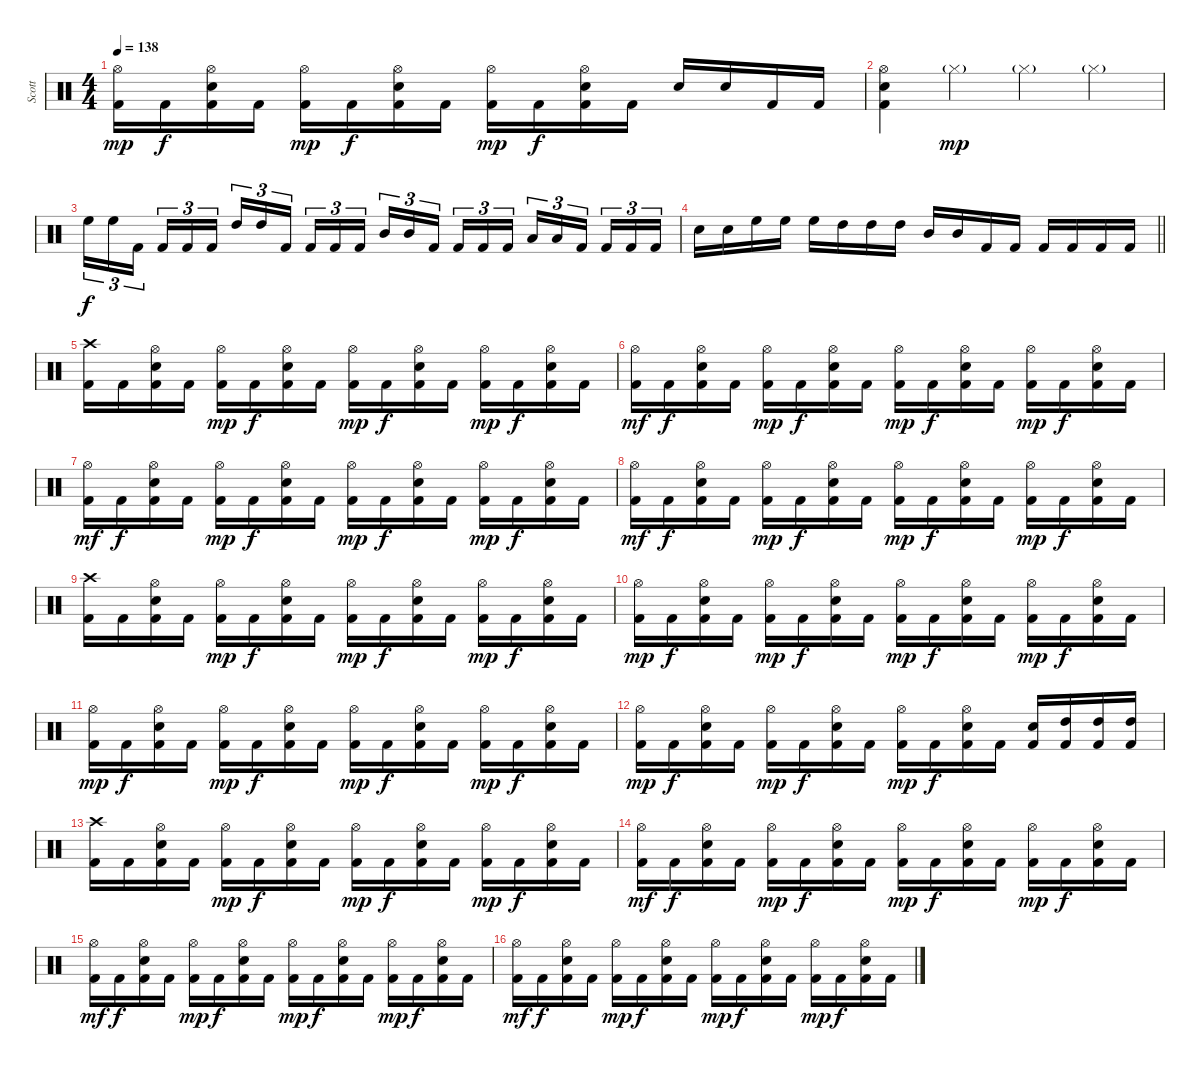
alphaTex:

\track ("Scott" "Scott") {instrument percussion}
\staff {score}
\articulation defaults
\ts (4 4)
\tempo 138
\clef neutral
\ks c
("Hi-Hat (open)" "Kick (hit) 2").16{dy mp} "Kick (hit) 2".16{dy f} ("Hi-Hat (open)" "Electric Snare (hit)" "Kick (hit) 2").16 "Kick (hit) 2".16 ("Hi-Hat (open)" "Kick (hit) 2").16{dy mp} "Kick (hit) 2".16{dy f} ("Hi-Hat (open)" "Electric Snare (hit)" "Kick (hit) 2").16 "Kick (hit) 2".16 ("Hi-Hat (open)" "Kick (hit) 2").16{dy mp} "Kick (hit) 2".16{dy f} ("Hi-Hat (open)" "Electric Snare (hit)" "Kick (hit) 2").16 "Kick (hit) 2".16 "Electric Snare (hit)".16 "Electric Snare (hit)".16 "Kick (hit) 2".16 "Kick (hit) 2".16 |
("Hi-Hat (open)" "Electric Snare (hit)" "Kick (hit) 2").4 "Hi-Hat (closed)"{g}.4{dy mp} "Hi-Hat (closed)"{g}.4 "Hi-Hat (closed)"{g}.4 |
"High Floor Tom (hit)".16{tu (3 2) dy f} "High Floor Tom (hit)".16{tu (3 2)} "Kick (hit) 2".16{tu (3 2)} "Kick (hit) 2".16{tu (3 2)} "Kick (hit) 2".16{tu (3 2)} "Kick (hit) 2".16{tu (3 2)} "High Tom (hit)".16{tu (3 2)} "High Tom (hit)".16{tu (3 2)} "Kick (hit) 2".16{tu (3 2)} "Kick (hit) 2".16{tu (3 2)} "Kick (hit) 2".16{tu (3 2)} "Kick (hit) 2".16{tu (3 2)} "Mid Tom (hit)".16{tu (3 2)} "Mid Tom (hit)".16{tu (3 2)} "Kick (hit) 2".16{tu (3 2)} "Kick (hit) 2".16{tu (3 2)} "Kick (hit) 2".16{tu (3 2)} "Kick (hit) 2".16{tu (3 2)} "Low Tom (hit)".16{tu (3 2)} "Low Tom (hit)".16{tu (3 2)} "Kick (hit) 2".16{tu (3 2)} "Kick (hit) 2".16{tu (3 2)} "Kick (hit) 2".16{tu (3 2)} "Kick (hit) 2".16{tu (3 2)} |
\barLineRight lightlight "Electric Snare (hit)".16 "Electric Snare (hit)".16 "High Floor Tom (hit)".16 "High Floor Tom (hit)".16 "High Floor Tom (hit)".16 "High Tom (hit)".16 "High Tom (hit)".16 "High Tom (hit)".16 "Mid Tom (hit)".16 "Mid Tom (hit)".16 "Kick (hit) 2".16 "Kick (hit) 2".16 "Kick (hit) 2".16 "Kick (hit) 2".16 "Kick (hit) 2".16 "Kick (hit) 2".16
|
("Crash high (hit)" "Kick (hit) 2").16 "Kick (hit) 2".16 ("Hi-Hat (open)" "Electric Snare (hit)" "Kick (hit) 2").16 "Kick (hit) 2".16 ("Hi-Hat (open)" "Kick (hit) 2").16{dy mp} "Kick (hit) 2".16{dy f} ("Hi-Hat (open)" "Electric Snare (hit)" "Kick (hit) 2").16 "Kick (hit) 2".16 ("Hi-Hat (open)" "Kick (hit) 2").16{dy mp} "Kick (hit) 2".16{dy f} ("Hi-Hat (open)" "Electric Snare (hit)" "Kick (hit) 2").16 "Kick (hit) 2".16 ("Hi-Hat (open)" "Kick (hit) 2").16{dy mp} "Kick (hit) 2".16{dy f} ("Hi-Hat (open)" "Electric Snare (hit)" "Kick (hit) 2").16 "Kick (hit) 2".16 |
("Hi-Hat (open)" "Kick (hit) 2").16{dy mf} "Kick (hit) 2".16{dy f} ("Hi-Hat (open)" "Electric Snare (hit)" "Kick (hit) 2").16 "Kick (hit) 2".16 ("Hi-Hat (open)" "Kick (hit) 2").16{dy mp} "Kick (hit) 2".16{dy f} ("Hi-Hat (open)" "Electric Snare (hit)" "Kick (hit) 2").16 "Kick (hit) 2".16 ("Hi-Hat (open)" "Kick (hit) 2").16{dy mp} "Kick (hit) 2".16{dy f} ("Hi-Hat (open)" "Electric Snare (hit)" "Kick (hit) 2").16 "Kick (hit) 2".16 ("Hi-Hat (open)" "Kick (hit) 2").16{dy mp} "Kick (hit) 2".16{dy f} ("Hi-Hat (open)" "Electric Snare (hit)" "Kick (hit) 2").16 "Kick (hit) 2".16 |
("Hi-Hat (open)" "Kick (hit) 2").16{dy mf} "Kick (hit) 2".16{dy f} ("Hi-Hat (open)" "Electric Snare (hit)" "Kick (hit) 2").16 "Kick (hit) 2".16 ("Hi-Hat (open)" "Kick (hit) 2").16{dy mp} "Kick (hit) 2".16{dy f} ("Hi-Hat (open)" "Electric Snare (hit)" "Kick (hit) 2").16 "Kick (hit) 2".16 ("Hi-Hat (open)" "Kick (hit) 2").16{dy mp} "Kick (hit) 2".16{dy f} ("Hi-Hat (open)" "Electric Snare (hit)" "Kick (hit) 2").16 "Kick (hit) 2".16 ("Hi-Hat (open)" "Kick (hit) 2").16{dy mp} "Kick (hit) 2".16{dy f} ("Hi-Hat (open)" "Electric Snare (hit)" "Kick (hit) 2").16 "Kick (hit) 2".16 |
("Hi-Hat (open)" "Kick (hit) 2").16{dy mf} "Kick (hit) 2".16{dy f} ("Hi-Hat (open)" "Electric Snare (hit)" "Kick (hit) 2").16 "Kick (hit) 2".16 ("Hi-Hat (open)" "Kick (hit) 2").16{dy mp} "Kick (hit) 2".16{dy f} ("Hi-Hat (open)" "Electric Snare (hit)" "Kick (hit) 2").16 "Kick (hit) 2".16 ("Hi-Hat (open)" "Kick (hit) 2").16{dy mp} "Kick (hit) 2".16{dy f} ("Hi-Hat (open)" "Electric Snare (hit)" "Kick (hit) 2").16 "Kick (hit) 2".16 ("Hi-Hat (open)" "Kick (hit) 2").16{dy mp} "Kick (hit) 2".16{dy f} ("Hi-Hat (open)" "Electric Snare (hit)" "Kick (hit) 2").16 "Kick (hit) 2".16 |
("Crash high (hit)" "Kick (hit) 2").16 "Kick (hit) 2".16 ("Hi-Hat (open)" "Electric Snare (hit)" "Kick (hit) 2").16 "Kick (hit) 2".16 ("Hi-Hat (open)" "Kick (hit) 2").16{dy mp} "Kick (hit) 2".16{dy f} ("Hi-Hat (open)" "Electric Snare (hit)" "Kick (hit) 2").16 "Kick (hit) 2".16 ("Hi-Hat (open)" "Kick (hit) 2").16{dy mp} "Kick (hit) 2".16{dy f} ("Hi-Hat (open)" "Electric Snare (hit)" "Kick (hit) 2").16 "Kick (hit) 2".16 ("Hi-Hat (open)" "Kick (hit) 2").16{dy mp} "Kick (hit) 2".16{dy f} ("Hi-Hat (open)" "Electric Snare (hit)" "Kick (hit) 2").16 "Kick (hit) 2".16 |
("Hi-Hat (open)" "Kick (hit) 2").16{dy mp} "Kick (hit) 2".16{dy f} ("Hi-Hat (open)" "Electric Snare (hit)" "Kick (hit) 2").16 "Kick (hit) 2".16 ("Hi-Hat (open)" "Kick (hit) 2").16{dy mp} "Kick (hit) 2".16{dy f} ("Hi-Hat (open)" "Electric Snare (hit)" "Kick (hit) 2").16 "Kick (hit) 2".16 ("Hi-Hat (open)" "Kick (hit) 2").16{dy mp} "Kick (hit) 2".16{dy f} ("Hi-Hat (open)" "Electric Snare (hit)" "Kick (hit) 2").16 "Kick (hit) 2".16 ("Hi-Hat (open)" "Kick (hit) 2").16{dy mp} "Kick (hit) 2".16{dy f} ("Hi-Hat (open)" "Electric Snare (hit)" "Kick (hit) 2").16 "Kick (hit) 2".16 |
("Hi-Hat (open)" "Kick (hit) 2").16{dy mp} "Kick (hit) 2".16{dy f} ("Hi-Hat (open)" "Electric Snare (hit)" "Kick (hit) 2").16 "Kick (hit) 2".16 ("Hi-Hat (open)" "Kick (hit) 2").16{dy mp} "Kick (hit) 2".16{dy f} ("Hi-Hat (open)" "Electric Snare (hit)" "Kick (hit) 2").16 "Kick (hit) 2".16 ("Hi-Hat (open)" "Kick (hit) 2").16{dy mp} "Kick (hit) 2".16{dy f} ("Hi-Hat (open)" "Electric Snare (hit)" "Kick (hit) 2").16 "Kick (hit) 2".16 ("Hi-Hat (open)" "Kick (hit) 2").16{dy mp} "Kick (hit) 2".16{dy f} ("Hi-Hat (open)" "Electric Snare (hit)" "Kick (hit) 2").16 "Kick (hit) 2".16 |
("Hi-Hat (open)" "Kick (hit) 2").16{dy mp} "Kick (hit) 2".16{dy f} ("Hi-Hat (open)" "Electric Snare (hit)" "Kick (hit) 2").16 "Kick (hit) 2".16 ("Hi-Hat (open)" "Kick (hit) 2").16{dy mp} "Kick (hit) 2".16{dy f} ("Hi-Hat (open)" "Electric Snare (hit)" "Kick (hit) 2").16 "Kick (hit) 2".16 ("Hi-Hat (open)" "Kick (hit) 2").16{dy mp} "Kick (hit) 2".16{dy f} ("Hi-Hat (open)" "Electric Snare (hit)" "Kick (hit) 2").16 "Kick (hit) 2".16 ("Electric Snare (hit)" "Kick (hit) 2").16 ("High Tom (hit)" "Kick (hit) 2").16 ("High Tom (hit)" "Kick (hit) 2").16 ("High Tom (hit)" "Kick (hit) 2").16 |
("Crash high (hit)" "Kick (hit) 2").16 "Kick (hit) 2".16 ("Hi-Hat (open)" "Electric Snare (hit)" "Kick (hit) 2").16 "Kick (hit) 2".16 ("Hi-Hat (open)" "Kick (hit) 2").16{dy mp} "Kick (hit) 2".16{dy f} ("Hi-Hat (open)" "Electric Snare (hit)" "Kick (hit) 2").16 "Kick (hit) 2".16 ("Hi-Hat (open)" "Kick (hit) 2").16{dy mp} "Kick (hit) 2".16{dy f} ("Hi-Hat (open)" "Electric Snare (hit)" "Kick (hit) 2").16 "Kick (hit) 2".16 ("Hi-Hat (open)" "Kick (hit) 2").16{dy mp} "Kick (hit) 2".16{dy f} ("Hi-Hat (open)" "Electric Snare (hit)" "Kick (hit) 2").16 "Kick (hit) 2".16 |
("Hi-Hat (open)" "Kick (hit) 2").16{dy mf} "Kick (hit) 2".16{dy f} ("Hi-Hat (open)" "Electric Snare (hit)" "Kick (hit) 2").16 "Kick (hit) 2".16 ("Hi-Hat (open)" "Kick (hit) 2").16{dy mp} "Kick (hit) 2".16{dy f} ("Hi-Hat (open)" "Electric Snare (hit)" "Kick (hit) 2").16 "Kick (hit) 2".16 ("Hi-Hat (open)" "Kick (hit) 2").16{dy mp} "Kick (hit) 2".16{dy f} ("Hi-Hat (open)" "Electric Snare (hit)" "Kick (hit) 2").16 "Kick (hit) 2".16 ("Hi-Hat (open)" "Kick (hit) 2").16{dy mp} "Kick (hit) 2".16{dy f} ("Hi-Hat (open)" "Electric Snare (hit)" "Kick (hit) 2").16 "Kick (hit) 2".16 |
("Hi-Hat (open)" "Kick (hit) 2").16{dy mf} "Kick (hit) 2".16{dy f} ("Hi-Hat (open)" "Electric Snare (hit)" "Kick (hit) 2").16 "Kick (hit) 2".16 ("Hi-Hat (open)" "Kick (hit) 2").16{dy mp} "Kick (hit) 2".16{dy f} ("Hi-Hat (open)" "Electric Snare (hit)" "Kick (hit) 2").16 "Kick (hit) 2".16 ("Hi-Hat (open)" "Kick (hit) 2").16{dy mp} "Kick (hit) 2".16{dy f} ("Hi-Hat (open)" "Electric Snare (hit)" "Kick (hit) 2").16 "Kick (hit) 2".16 ("Hi-Hat (open)" "Kick (hit) 2").16{dy mp} "Kick (hit) 2".16{dy f} ("Hi-Hat (open)" "Electric Snare (hit)" "Kick (hit) 2").16 "Kick (hit) 2".16 |
("Hi-Hat (open)" "Kick (hit) 2").16{dy mf} "Kick (hit) 2".16{dy f} ("Hi-Hat (open)" "Electric Snare (hit)" "Kick (hit) 2").16 "Kick (hit) 2".16 ("Hi-Hat (open)" "Kick (hit) 2").16{dy mp} "Kick (hit) 2".16{dy f} ("Hi-Hat (open)" "Electric Snare (hit)" "Kick (hit) 2").16 "Kick (hit) 2".16 ("Hi-Hat (open)" "Kick (hit) 2").16{dy mp} "Kick (hit) 2".16{dy f} ("Hi-Hat (open)" "Electric Snare (hit)" "Kick (hit) 2").16 "Kick (hit) 2".16 ("Hi-Hat (open)" "Kick (hit) 2").16{dy mp} "Kick (hit) 2".16{dy f} ("Hi-Hat (open)" "Electric Snare (hit)" "Kick (hit) 2").16 "Kick (hit) 2".16
